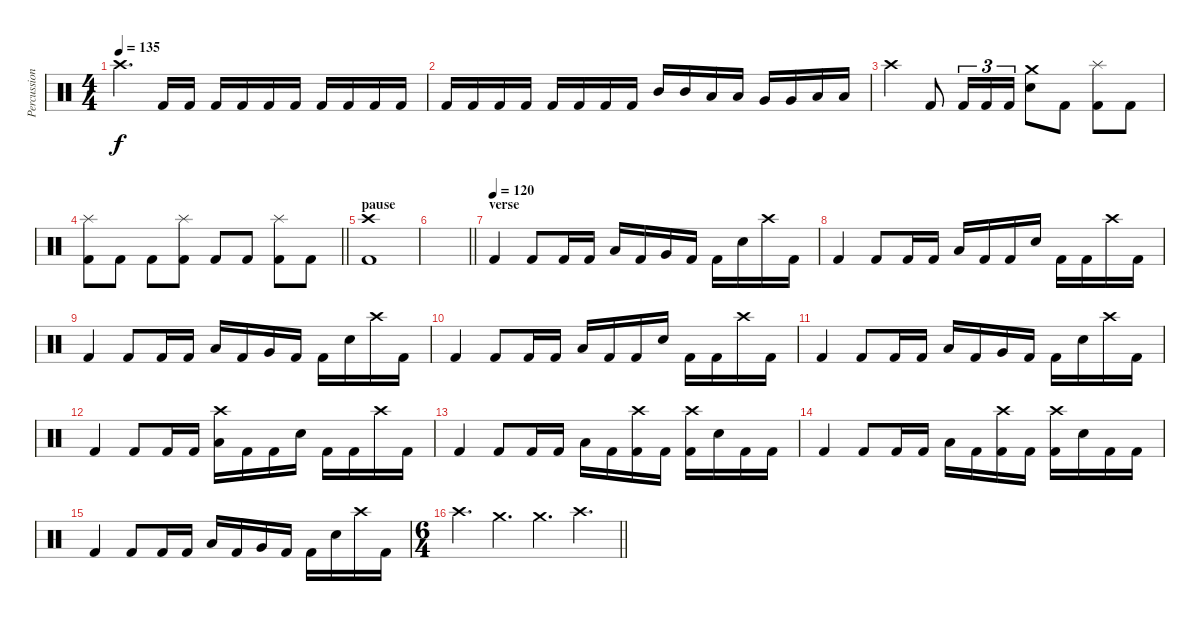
\track ("Percussion" "Percussion") {instrument percussion}
\staff {score}
\articulation defaults
\ts (4 4)
\tempo 135
\clef neutral
\ks c "Crash high (hit)".4{d dy f} "Kick (hit) 2".16 "Kick (hit) 2".16 "Kick (hit) 2".16 "Kick (hit) 2".16 "Kick (hit) 2".16 "Kick (hit) 2".16 "Kick (hit) 2".16 "Kick (hit) 2".16 "Kick (hit) 2".16 "Kick (hit) 2".16
|
"Kick (hit) 2".16 "Kick (hit) 2".16 "Kick (hit) 2".16 "Kick (hit) 2".16 "Kick (hit) 2".16 "Kick (hit) 2".16 "Kick (hit) 2".16 "Kick (hit) 2".16 "Mid Tom (hit)".16 "Mid Tom (hit)".16 "Low Tom (hit)".16 "Low Tom (hit)".16 "Very Low Tom (hit)".16 "Very Low Tom (hit)".16 "Low Floor Tom (hit)".16 "Low Floor Tom (hit)".16 |
"Crash high (hit)".4 "Kick (hit) 2".8 "Kick (hit) 2".16{tu (3 2)} "Kick (hit) 2".16{tu (3 2)} "Kick (hit) 2".16{tu (3 2)} ("Crash medium (hit)" "Snare (hit) 2").8 "Kick (hit) 2".8 ("Splash (hit)" "Kick (hit) 2").8 "Kick (hit) 2".8 |
\barLineRight lightlight
("Splash (hit)" "Kick (hit) 2").8 "Kick (hit) 2".8 "Kick (hit) 2".8 ("Splash (hit)" "Kick (hit) 2").8 "Kick (hit) 2".8 "Kick (hit) 2".8 ("Splash (hit)" "Kick (hit) 2").8 "Kick (hit) 2".8 |
\section ("" "pause")
("Crash high (hit)" "Kick (hit) 2").1 |
\barLineRight lightlight
|
\section ("" "verse")
\tempo (120)
"Kick (hit) 2".4 "Kick (hit) 2".8 "Kick (hit) 2".16 "Kick (hit) 2".16 "Low Floor Tom (hit)".16 "Kick (hit) 2".16 "Very Low Tom (hit)".16 "Kick (hit) 2".16 "Kick (hit) 2".16 "Snare (hit) 2".16 "Crash high (hit)".16 "Kick (hit) 2".16 |
"Kick (hit) 2".4 "Kick (hit) 2".8 "Kick (hit) 2".16 "Kick (hit) 2".16 "Low Floor Tom (hit)".16 "Kick (hit) 2".16 "Kick (hit) 2".16 "Snare (hit) 2".16 "Kick (hit) 2".16 "Kick (hit) 2".16 "Crash high (hit)".16 "Kick (hit) 2".16 |
"Kick (hit) 2".4 "Kick (hit) 2".8 "Kick (hit) 2".16 "Kick (hit) 2".16 "Low Floor Tom (hit)".16 "Kick (hit) 2".16 "Very Low Tom (hit)".16 "Kick (hit) 2".16 "Kick (hit) 2".16 "Snare (hit) 2".16 "Crash high (hit)".16 "Kick (hit) 2".16 |
"Kick (hit) 2".4 "Kick (hit) 2".8 "Kick (hit) 2".16 "Kick (hit) 2".16 "Low Floor Tom (hit)".16 "Kick (hit) 2".16 "Kick (hit) 2".16 "Snare (hit) 2".16 "Kick (hit) 2".16 "Kick (hit) 2".16 "Crash high (hit)".16 "Kick (hit) 2".16 |
"Kick (hit) 2".4 "Kick (hit) 2".8 "Kick (hit) 2".16 "Kick (hit) 2".16 "Low Floor Tom (hit)".16 "Kick (hit) 2".16 "Very Low Tom (hit)".16 "Kick (hit) 2".16 "Kick (hit) 2".16 "Snare (hit) 2".16 "Crash high (hit)".16 "Kick (hit) 2".16 |
"Kick (hit) 2".4 "Kick (hit) 2".8 "Kick (hit) 2".16 "Kick (hit) 2".16 ("Crash high (hit)" "Low Floor Tom (hit)").16 "Kick (hit) 2".16 "Kick (hit) 2".16 "Snare (hit) 2".16 "Kick (hit) 2".16 "Kick (hit) 2".16 "Crash high (hit)".16 "Kick (hit) 2".16 |
"Kick (hit) 2".4 "Kick (hit) 2".8 "Kick (hit) 2".16 "Kick (hit) 2".16 "Low Floor Tom (hit)".16 "Kick (hit) 2".16 ("Crash high (hit)" "Kick (hit) 2").16 "Kick (hit) 2".16 ("Crash high (hit)" "Kick (hit) 2").16 "Snare (hit) 2".16 "Kick (hit) 2".16 "Kick (hit) 2".16 |
"Kick (hit) 2".4 "Kick (hit) 2".8 "Kick (hit) 2".16 "Kick (hit) 2".16 "Low Floor Tom (hit)".16 "Kick (hit) 2".16 ("Crash high (hit)" "Kick (hit) 2").16 "Kick (hit) 2".16 ("Crash high (hit)" "Kick (hit) 2").16 "Snare (hit) 2".16 "Kick (hit) 2".16 "Kick (hit) 2".16 |
"Kick (hit) 2".4 "Kick (hit) 2".8 "Kick (hit) 2".16 "Kick (hit) 2".16 "Low Floor Tom (hit)".16 "Kick (hit) 2".16 "Very Low Tom (hit)".16 "Kick (hit) 2".16 "Kick (hit) 2".16 "Snare (hit) 2".16 "Crash high (hit)".16 "Kick (hit) 2".16 |
\ts (6 4)
\barLineRight lightlight "Crash high (hit)".4{d} "Crash medium (hit)".4{d} "Crash medium (hit)".4{d} "Crash high (hit)".4{d}
